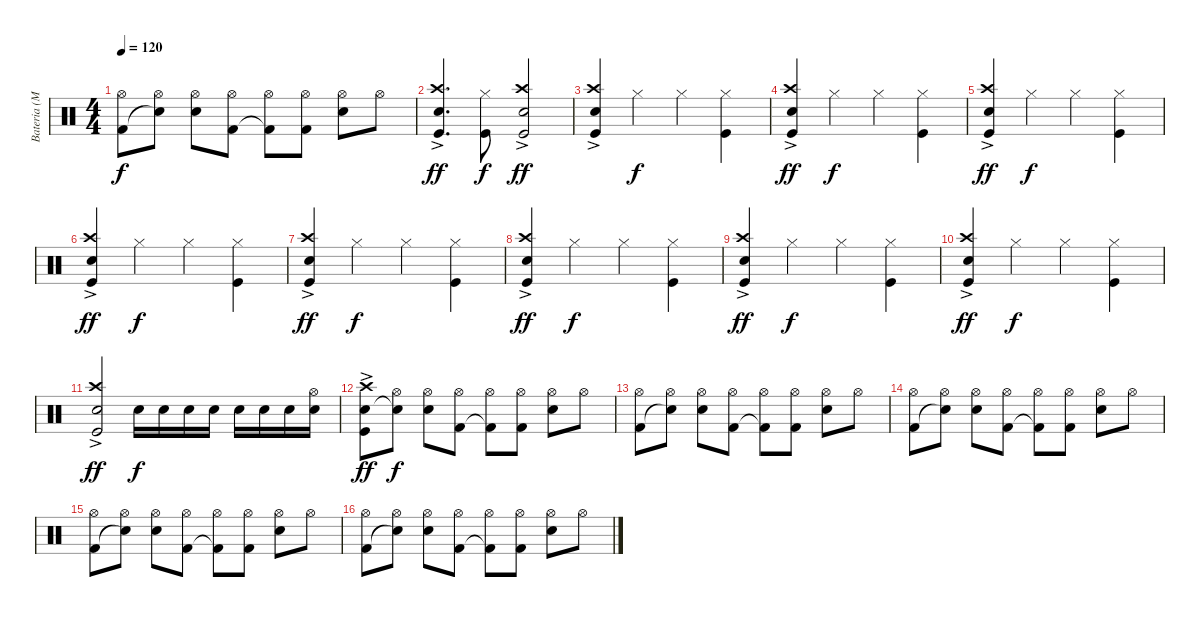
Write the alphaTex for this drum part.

\track ("Bateria (Mauricio Llona)" "Bateria (M") {instrument percussion}
\staff {score}
\articulation defaults
\ts (4 4)
\tempo 120
\clef neutral
\ks c
("Hi-Hat (open)" "Kick (hit) 2").8{dy f} ("Hi-Hat (open)" "Snare (hit)"{t}).8 ("Hi-Hat (open)" "Electric Snare (hit)").8 ("Hi-Hat (open)" "Kick (hit) 2").8 ("Hi-Hat (open)" "Kick (hit) 2"{t}).8 ("Hi-Hat (open)" "Kick (hit) 2").8 ("Hi-Hat (open)" "Electric Snare (hit)").8 "Hi-Hat (open)".8 |
("Crash high (hit)" "Snare (hit) 2"{ac} "Kick (hit)").4{d dy ff} ("Hi-Hat (closed)" "Kick (hit)").8{dy f} ("Crash high (hit)" "Snare (hit) 2"{ac} "Kick (hit)").2{dy ff} |
("Crash high (hit)" "Snare (hit) 2"{ac} "Kick (hit)").4 "Hi-Hat (closed)".4{dy f} "Hi-Hat (closed)".4 ("Hi-Hat (closed)" "Kick (hit)").4 |
("Crash high (hit)" "Snare (hit) 2"{ac} "Kick (hit)").4{dy ff} "Hi-Hat (closed)".4{dy f} "Hi-Hat (closed)".4 ("Hi-Hat (closed)" "Kick (hit)").4 |
("Crash high (hit)" "Snare (hit) 2"{ac} "Kick (hit)").4{dy ff} "Hi-Hat (closed)".4{dy f} "Hi-Hat (closed)".4 ("Hi-Hat (closed)" "Kick (hit)").4 |
("Crash high (hit)" "Snare (hit) 2"{ac} "Kick (hit)").4{dy ff} "Hi-Hat (closed)".4{dy f} "Hi-Hat (closed)".4 ("Hi-Hat (closed)" "Kick (hit)").4 |
("Crash high (hit)" "Snare (hit) 2"{ac} "Kick (hit)").4{dy ff} "Hi-Hat (closed)".4{dy f} "Hi-Hat (closed)".4 ("Hi-Hat (closed)" "Kick (hit)").4 |
("Crash high (hit)" "Snare (hit) 2"{ac} "Kick (hit)").4{dy ff} "Hi-Hat (closed)".4{dy f} "Hi-Hat (closed)".4 ("Hi-Hat (closed)" "Kick (hit)").4 |
("Crash high (hit)" "Snare (hit) 2"{ac} "Kick (hit)").4{dy ff} "Hi-Hat (closed)".4{dy f} "Hi-Hat (closed)".4 ("Hi-Hat (closed)" "Kick (hit)").4 |
("Crash high (hit)" "Snare (hit) 2"{ac} "Kick (hit)").4{dy ff} "Hi-Hat (closed)".4{dy f} "Hi-Hat (closed)".4 ("Hi-Hat (closed)" "Kick (hit)").4 |
("Crash high (hit)" "Snare (hit) 2"{ac} "Kick (hit)").2{dy ff} "Snare (hit) 2".16{dy f} "Snare (hit) 2".16 "Snare (hit) 2".16 "Snare (hit) 2".16 "Snare (hit) 2".16 "Snare (hit) 2".16 "Snare (hit) 2".16 ("Hi-Hat (open)" "Snare (hit) 2").16 |
("Crash high (hit)" "Snare (hit) 2"{ac} "Kick (hit)"{ac}).8{dy ff} ("Hi-Hat (open)" "Snare (hit)"{t}).8{dy f} ("Hi-Hat (open)" "Electric Snare (hit)").8 ("Hi-Hat (open)" "Kick (hit) 2").8 ("Hi-Hat (open)" "Kick (hit) 2"{t}).8 ("Hi-Hat (open)" "Kick (hit) 2").8 ("Hi-Hat (open)" "Electric Snare (hit)").8 "Hi-Hat (open)".8 |
("Hi-Hat (open)" "Kick (hit) 2").8 ("Hi-Hat (open)" "Snare (hit)"{t}).8 ("Hi-Hat (open)" "Electric Snare (hit)").8 ("Hi-Hat (open)" "Kick (hit) 2").8 ("Hi-Hat (open)" "Kick (hit) 2"{t}).8 ("Hi-Hat (open)" "Kick (hit) 2").8 ("Hi-Hat (open)" "Electric Snare (hit)").8 "Hi-Hat (open)".8 |
("Hi-Hat (open)" "Kick (hit) 2").8 ("Hi-Hat (open)" "Snare (hit)"{t}).8 ("Hi-Hat (open)" "Electric Snare (hit)").8 ("Hi-Hat (open)" "Kick (hit) 2").8 ("Hi-Hat (open)" "Kick (hit) 2"{t}).8 ("Hi-Hat (open)" "Kick (hit) 2").8 ("Hi-Hat (open)" "Electric Snare (hit)").8 "Hi-Hat (open)".8 |
("Hi-Hat (open)" "Kick (hit) 2").8 ("Hi-Hat (open)" "Snare (hit)"{t}).8 ("Hi-Hat (open)" "Electric Snare (hit)").8 ("Hi-Hat (open)" "Kick (hit) 2").8 ("Hi-Hat (open)" "Kick (hit) 2"{t}).8 ("Hi-Hat (open)" "Kick (hit) 2").8 ("Hi-Hat (open)" "Electric Snare (hit)").8 "Hi-Hat (open)".8 |
("Hi-Hat (open)" "Kick (hit) 2").8 ("Hi-Hat (open)" "Snare (hit)"{t}).8 ("Hi-Hat (open)" "Electric Snare (hit)").8 ("Hi-Hat (open)" "Kick (hit) 2").8 ("Hi-Hat (open)" "Kick (hit) 2"{t}).8 ("Hi-Hat (open)" "Kick (hit) 2").8 ("Hi-Hat (open)" "Electric Snare (hit)").8 "Hi-Hat (open)".8
